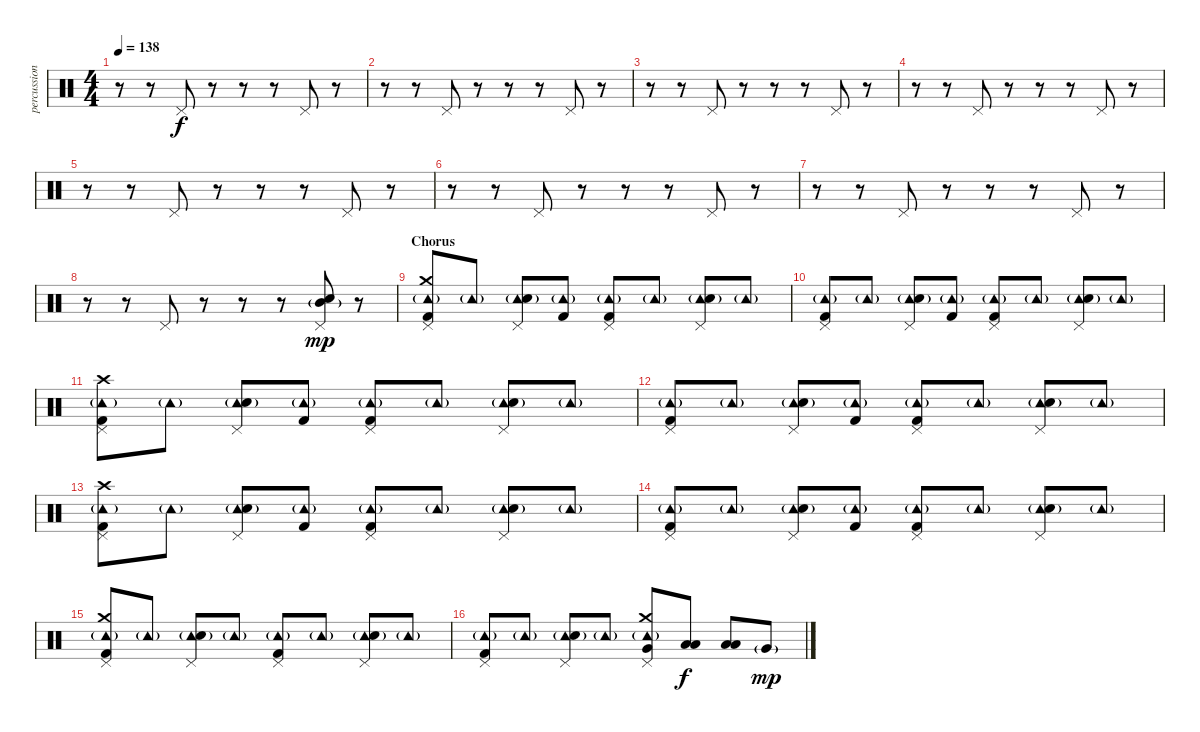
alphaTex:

\track ("percussion - vom" "percussion") {instrument percussion}
\staff {score}
\articulation defaults
\ts (4 4)
\tempo 138
\clef neutral
\ks c
r.8{dy f} r.8 "Pedal Hi-Hat (hit)".8 r.8 r.8 r.8 "Pedal Hi-Hat (hit)".8 r.8 |
r.8 r.8 "Pedal Hi-Hat (hit)".8 r.8 r.8 r.8 "Pedal Hi-Hat (hit)".8 r.8 |
r.8 r.8 "Pedal Hi-Hat (hit)".8 r.8 r.8 r.8 "Pedal Hi-Hat (hit)".8 r.8 |
r.8 r.8 "Pedal Hi-Hat (hit)".8 r.8 r.8 r.8 "Pedal Hi-Hat (hit)".8 r.8 |
r.8 r.8 "Pedal Hi-Hat (hit)".8 r.8 r.8 r.8 "Pedal Hi-Hat (hit)".8 r.8 |
r.8 r.8 "Pedal Hi-Hat (hit)".8 r.8 r.8 r.8 "Pedal Hi-Hat (hit)".8 r.8 |
r.8 r.8 "Pedal Hi-Hat (hit)".8 r.8 r.8 r.8 "Pedal Hi-Hat (hit)".8 r.8 |
r.8 r.8 "Pedal Hi-Hat (hit)".8 r.8 r.8 r.8 ("Pedal Hi-Hat (hit)" "Mid Tom (hit)"{g} "Snare (hit) 2").8{dy mp} r.8 |
\section ("" "Chorus")
("Pedal Hi-Hat (hit)" "Tambourine (hit)"{g} "Crash medium (hit)" "Kick (hit) 2").8 "Tambourine (hit)"{g}.8 ("Pedal Hi-Hat (hit)" "Tambourine (hit)"{g} "Snare (hit) 2").8 ("Tambourine (hit)"{g} "Kick (hit) 2").8 ("Pedal Hi-Hat (hit)" "Tambourine (hit)"{g} "Kick (hit) 2").8 "Tambourine (hit)"{g}.8 ("Pedal Hi-Hat (hit)" "Tambourine (hit)"{g} "Snare (hit) 2").8 "Tambourine (hit)"{g}.8 |
("Pedal Hi-Hat (hit)" "Tambourine (hit)"{g} "Kick (hit) 2").8 "Tambourine (hit)"{g}.8 ("Pedal Hi-Hat (hit)" "Tambourine (hit)"{g} "Snare (hit) 2").8 ("Tambourine (hit)"{g} "Kick (hit) 2").8 ("Pedal Hi-Hat (hit)" "Tambourine (hit)"{g} "Kick (hit) 2").8 "Tambourine (hit)"{g}.8 ("Pedal Hi-Hat (hit)" "Tambourine (hit)"{g} "Snare (hit) 2").8 "Tambourine (hit)"{g}.8 |
("Pedal Hi-Hat (hit)" "Tambourine (hit)"{g} "Crash high (hit)" "Kick (hit) 2").8 "Tambourine (hit)"{g}.8 ("Pedal Hi-Hat (hit)" "Tambourine (hit)"{g} "Snare (hit) 2").8 ("Tambourine (hit)"{g} "Kick (hit) 2").8 ("Pedal Hi-Hat (hit)" "Tambourine (hit)"{g} "Kick (hit) 2").8 "Tambourine (hit)"{g}.8 ("Pedal Hi-Hat (hit)" "Tambourine (hit)"{g} "Snare (hit) 2").8 "Tambourine (hit)"{g}.8 |
("Pedal Hi-Hat (hit)" "Tambourine (hit)"{g} "Kick (hit) 2").8 "Tambourine (hit)"{g}.8 ("Pedal Hi-Hat (hit)" "Tambourine (hit)"{g} "Snare (hit) 2").8 ("Tambourine (hit)"{g} "Kick (hit) 2").8 ("Pedal Hi-Hat (hit)" "Tambourine (hit)"{g} "Kick (hit) 2").8 "Tambourine (hit)"{g}.8 ("Pedal Hi-Hat (hit)" "Tambourine (hit)"{g} "Snare (hit) 2").8 "Tambourine (hit)"{g}.8 |
("Pedal Hi-Hat (hit)" "Tambourine (hit)"{g} "Crash high (hit)" "Kick (hit) 2").8 "Tambourine (hit)"{g}.8 ("Pedal Hi-Hat (hit)" "Tambourine (hit)"{g} "Snare (hit) 2").8 ("Tambourine (hit)"{g} "Kick (hit) 2").8 ("Pedal Hi-Hat (hit)" "Tambourine (hit)"{g} "Kick (hit) 2").8 "Tambourine (hit)"{g}.8 ("Pedal Hi-Hat (hit)" "Tambourine (hit)"{g} "Snare (hit) 2").8 "Tambourine (hit)"{g}.8 |
("Pedal Hi-Hat (hit)" "Tambourine (hit)"{g} "Kick (hit) 2").8 "Tambourine (hit)"{g}.8 ("Pedal Hi-Hat (hit)" "Tambourine (hit)"{g} "Snare (hit) 2").8 ("Tambourine (hit)"{g} "Kick (hit) 2").8 ("Pedal Hi-Hat (hit)" "Tambourine (hit)"{g} "Kick (hit) 2").8 "Tambourine (hit)"{g}.8 ("Pedal Hi-Hat (hit)" "Tambourine (hit)"{g} "Snare (hit) 2").8 "Tambourine (hit)"{g}.8 |
("Pedal Hi-Hat (hit)" "Tambourine (hit)"{g} "Crash medium (hit)" "Kick (hit) 2").8 "Tambourine (hit)"{g}.8 ("Pedal Hi-Hat (hit)" "Tambourine (hit)"{g} "Snare (hit) 2").8 "Tambourine (hit)"{g}.8 ("Pedal Hi-Hat (hit)" "Tambourine (hit)"{g} "Kick (hit) 2").8 "Tambourine (hit)"{g}.8 ("Pedal Hi-Hat (hit)" "Tambourine (hit)"{g} "Snare (hit) 2").8 "Tambourine (hit)"{g}.8 |
("Pedal Hi-Hat (hit)" "Tambourine (hit)"{g} "Kick (hit) 2").8 "Tambourine (hit)"{g}.8 ("Pedal Hi-Hat (hit)" "Tambourine (hit)"{g} "Snare (hit) 2").8 "Tambourine (hit)"{g}.8 ("Pedal Hi-Hat (hit)" "Tambourine (hit)"{g} "Crash medium (hit)" "Very Low Tom (hit)").8 ("Low Tom (hit)" "Low Tom (hit)").8{bd 480 dy f} ("Low Tom (hit)" "Low Tom (hit)").8{bd 480} "Very Low Tom (hit)"{g}.8{dy mp}
